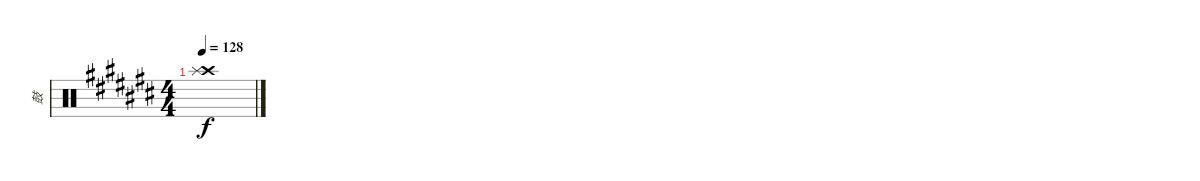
\track ("鼓" "鼓") {instrument percussion}
\staff {score}
\articulation defaults
\ts (4 4)
\tempo 128
\clef neutral
\ks c#
("Crash high (hit)" "Splash (hit)").1{dy f}
